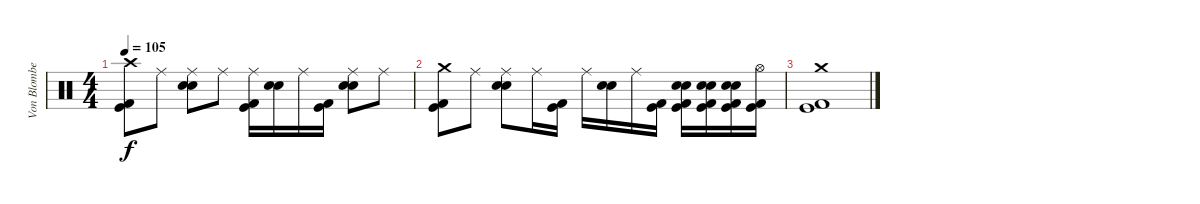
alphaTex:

\track ("Von Blomberg" "Von Blombe") {instrument percussion}
\staff {score}
\articulation defaults
\ts (4 4)
\tempo 105
\clef neutral
\ks c
("Crash high (hit)" "Kick (hit)" "Kick (hit) 2").8{dy f} "Ride (middle)".8 ("Ride (middle)" "Electric Snare (hit)" "Snare (hit) 2").8 "Ride (middle)".8 ("Ride (middle)" "Kick (hit)" "Kick (hit) 2").16 ("Electric Snare (hit)" "Snare (hit) 2").16 "Ride (middle)".16 ("Kick (hit) 2" "Kick (hit)").16 ("Ride (middle)" "Snare (hit) 2" "Electric Snare (hit)").8 "Ride (middle)".8 |
("Crash medium (hit)" "Kick (hit)" "Kick (hit) 2").8 "Ride (middle)".8 ("Ride (middle)" "Electric Snare (hit)" "Snare (hit) 2").8 "Ride (middle)".16 ("Kick (hit)" "Kick (hit) 2").16 "Ride (middle)".16 ("Snare (hit) 2" "Electric Snare (hit)").16 "Ride (middle)".16 ("Kick (hit)" "Kick (hit) 2").16 ("Electric Snare (hit)" "Snare (hit) 2" "Kick (hit)" "Kick (hit) 2").16 ("Electric Snare (hit)" "Snare (hit) 2" "Kick (hit)" "Kick (hit) 2").16 ("Electric Snare (hit)" "Snare (hit) 2" "Kick (hit)" "Kick (hit) 2").16 ("Hi-Hat (open)" "Kick (hit)" "Kick (hit) 2").16 |
("Crash medium (hit)" "Kick (hit) 2" "Kick (hit)").1
